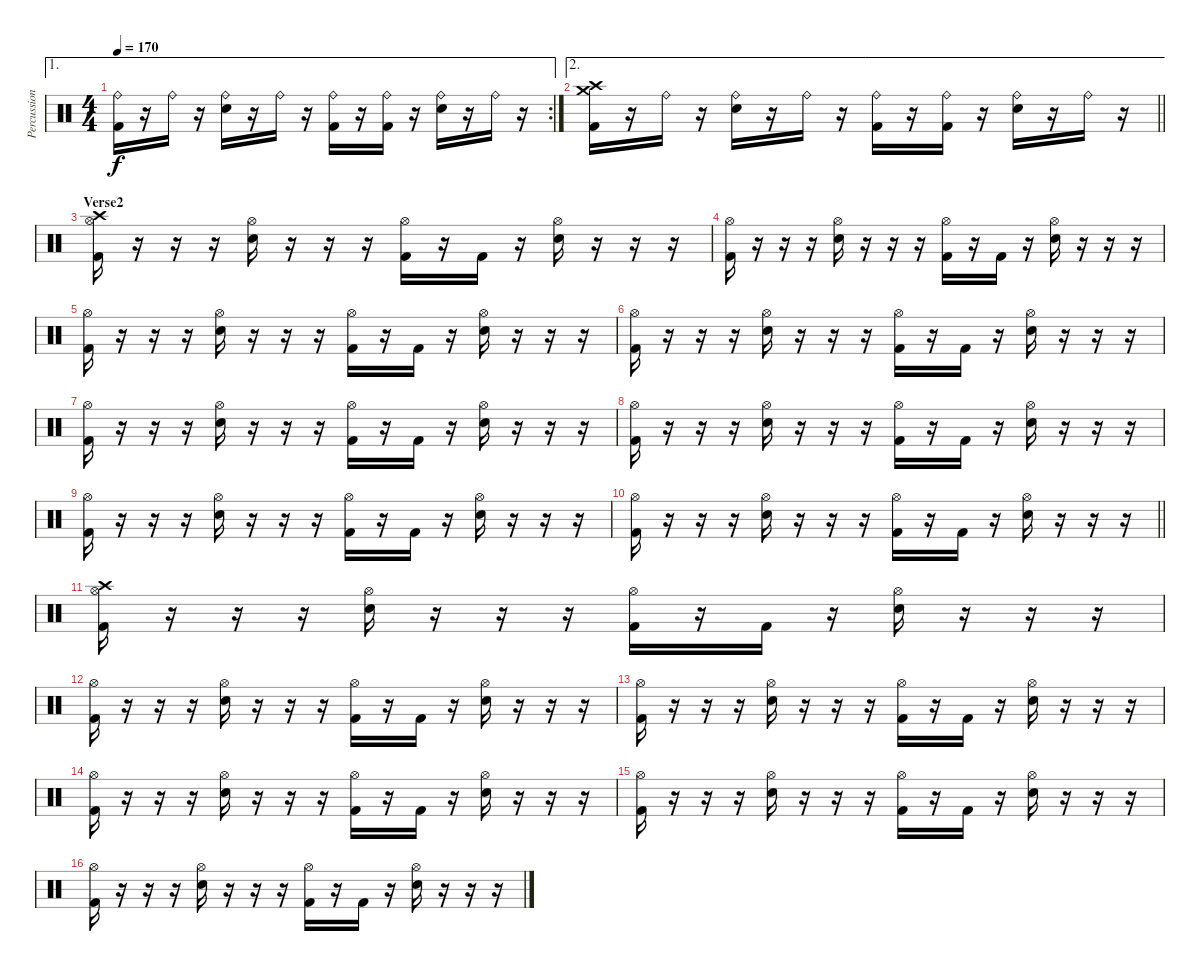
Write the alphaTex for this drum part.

\track ("Percussion" "Percussion") {instrument percussion}
\staff {score}
\articulation defaults
\ae 1
\rc 2
\ts (4 4)
\tempo 170
\clef neutral
\ks c
("Ride (bell)" "Kick (hit) 2").16{dy f} r.16 "Ride (bell)".16 r.16 ("Ride (bell)" "Electric Snare (hit)").16 r.16 "Ride (bell)".16 r.16 ("Ride (bell)" "Kick (hit) 2").16 r.16 ("Ride (bell)" "Kick (hit) 2").16 r.16 ("Ride (bell)" "Electric Snare (hit)").16 r.16 "Ride (bell)".16 r.16 |
\ae 2
\barLineRight lightlight
("Crash high (hit)" "Crash medium (hit)" "Kick (hit) 2").16 r.16 "Ride (bell)".16 r.16 ("Ride (bell)" "Electric Snare (hit)").16 r.16 "Ride (bell)".16 r.16 ("Ride (bell)" "Kick (hit) 2").16 r.16 ("Ride (bell)" "Kick (hit) 2").16 r.16 ("Ride (bell)" "Electric Snare (hit)").16 r.16 "Ride (bell)".16 r.16 |
\section ("" "Verse2")
("Hi-Hat (open)" "Crash high (hit)" "Kick (hit) 2").16 r.16 r.16 r.16 ("Hi-Hat (open)" "Electric Snare (hit)").16 r.16 r.16 r.16 ("Hi-Hat (open)" "Kick (hit) 2").16 r.16 "Kick (hit) 2".16 r.16 ("Hi-Hat (open)" "Electric Snare (hit)").16 r.16 r.16 r.16 |
("Hi-Hat (open)" "Kick (hit) 2").16 r.16 r.16 r.16 ("Hi-Hat (open)" "Electric Snare (hit)").16 r.16 r.16 r.16 ("Hi-Hat (open)" "Kick (hit) 2").16 r.16 "Kick (hit) 2".16 r.16 ("Hi-Hat (open)" "Electric Snare (hit)").16 r.16 r.16 r.16 |
("Hi-Hat (open)" "Kick (hit) 2").16 r.16 r.16 r.16 ("Hi-Hat (open)" "Electric Snare (hit)").16 r.16 r.16 r.16 ("Hi-Hat (open)" "Kick (hit) 2").16 r.16 "Kick (hit) 2".16 r.16 ("Hi-Hat (open)" "Electric Snare (hit)").16 r.16 r.16 r.16 |
("Hi-Hat (open)" "Kick (hit) 2").16 r.16 r.16 r.16 ("Hi-Hat (open)" "Electric Snare (hit)").16 r.16 r.16 r.16 ("Hi-Hat (open)" "Kick (hit) 2").16 r.16 "Kick (hit) 2".16 r.16 ("Hi-Hat (open)" "Electric Snare (hit)").16 r.16 r.16 r.16 |
("Hi-Hat (open)" "Kick (hit) 2").16 r.16 r.16 r.16 ("Hi-Hat (open)" "Electric Snare (hit)").16 r.16 r.16 r.16 ("Hi-Hat (open)" "Kick (hit) 2").16 r.16 "Kick (hit) 2".16 r.16 ("Hi-Hat (open)" "Electric Snare (hit)").16 r.16 r.16 r.16 |
("Hi-Hat (open)" "Kick (hit) 2").16 r.16 r.16 r.16 ("Hi-Hat (open)" "Electric Snare (hit)").16 r.16 r.16 r.16 ("Hi-Hat (open)" "Kick (hit) 2").16 r.16 "Kick (hit) 2".16 r.16 ("Hi-Hat (open)" "Electric Snare (hit)").16 r.16 r.16 r.16 |
("Hi-Hat (open)" "Kick (hit) 2").16 r.16 r.16 r.16 ("Hi-Hat (open)" "Electric Snare (hit)").16 r.16 r.16 r.16 ("Hi-Hat (open)" "Kick (hit) 2").16 r.16 "Kick (hit) 2".16 r.16 ("Hi-Hat (open)" "Electric Snare (hit)").16 r.16 r.16 r.16 |
\barLineRight lightlight
("Hi-Hat (open)" "Kick (hit) 2").16 r.16 r.16 r.16 ("Hi-Hat (open)" "Electric Snare (hit)").16 r.16 r.16 r.16 ("Hi-Hat (open)" "Kick (hit) 2").16 r.16 "Kick (hit) 2".16 r.16 ("Hi-Hat (open)" "Electric Snare (hit)").16 r.16 r.16 r.16 |
("Hi-Hat (open)" "Crash high (hit)" "Kick (hit) 2").16 r.16 r.16 r.16 ("Hi-Hat (open)" "Electric Snare (hit)").16 r.16 r.16 r.16 ("Hi-Hat (open)" "Kick (hit) 2").16 r.16 "Kick (hit) 2".16 r.16 ("Hi-Hat (open)" "Electric Snare (hit)").16 r.16 r.16 r.16 |
("Hi-Hat (open)" "Kick (hit) 2").16 r.16 r.16 r.16 ("Hi-Hat (open)" "Electric Snare (hit)").16 r.16 r.16 r.16 ("Hi-Hat (open)" "Kick (hit) 2").16 r.16 "Kick (hit) 2".16 r.16 ("Hi-Hat (open)" "Electric Snare (hit)").16 r.16 r.16 r.16 |
("Hi-Hat (open)" "Kick (hit) 2").16 r.16 r.16 r.16 ("Hi-Hat (open)" "Electric Snare (hit)").16 r.16 r.16 r.16 ("Hi-Hat (open)" "Kick (hit) 2").16 r.16 "Kick (hit) 2".16 r.16 ("Hi-Hat (open)" "Electric Snare (hit)").16 r.16 r.16 r.16 |
("Hi-Hat (open)" "Kick (hit) 2").16 r.16 r.16 r.16 ("Hi-Hat (open)" "Electric Snare (hit)").16 r.16 r.16 r.16 ("Hi-Hat (open)" "Kick (hit) 2").16 r.16 "Kick (hit) 2".16 r.16 ("Hi-Hat (open)" "Electric Snare (hit)").16 r.16 r.16 r.16 |
("Hi-Hat (open)" "Kick (hit) 2").16 r.16 r.16 r.16 ("Hi-Hat (open)" "Electric Snare (hit)").16 r.16 r.16 r.16 ("Hi-Hat (open)" "Kick (hit) 2").16 r.16 "Kick (hit) 2".16 r.16 ("Hi-Hat (open)" "Electric Snare (hit)").16 r.16 r.16 r.16 |
("Hi-Hat (open)" "Kick (hit) 2").16 r.16 r.16 r.16 ("Hi-Hat (open)" "Electric Snare (hit)").16 r.16 r.16 r.16 ("Hi-Hat (open)" "Kick (hit) 2").16 r.16 "Kick (hit) 2".16 r.16 ("Hi-Hat (open)" "Electric Snare (hit)").16 r.16 r.16 r.16
